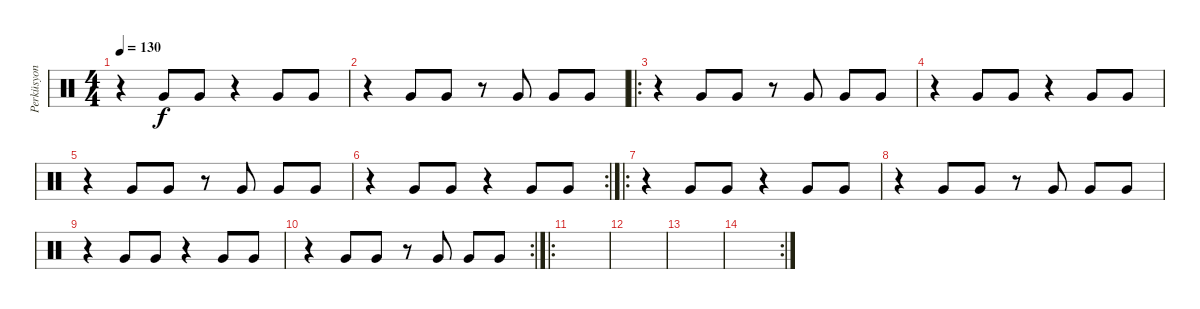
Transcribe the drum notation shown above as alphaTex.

\track ("Perküsyon" "Perküsyon") {instrument percussion}
\staff {score}
\articulation defaults
\ts (4 4)
\tempo 130
\clef neutral
\ks c
r.4{dy f} "Very Low Tom (hit)".8 "Very Low Tom (hit)".8 r.4 "Very Low Tom (hit)".8 "Very Low Tom (hit)".8 |
r.4 "Very Low Tom (hit)".8 "Very Low Tom (hit)".8 r.8 "Very Low Tom (hit)".8 "Very Low Tom (hit)".8 "Very Low Tom (hit)".8 |
\ro
r.4 "Very Low Tom (hit)".8 "Very Low Tom (hit)".8 r.8 "Very Low Tom (hit)".8 "Very Low Tom (hit)".8 "Very Low Tom (hit)".8 |
r.4 "Very Low Tom (hit)".8 "Very Low Tom (hit)".8 r.4 "Very Low Tom (hit)".8 "Very Low Tom (hit)".8 |
r.4 "Very Low Tom (hit)".8 "Very Low Tom (hit)".8 r.8 "Very Low Tom (hit)".8 "Very Low Tom (hit)".8 "Very Low Tom (hit)".8 |
\rc 2
r.4 "Very Low Tom (hit)".8 "Very Low Tom (hit)".8 r.4 "Very Low Tom (hit)".8 "Very Low Tom (hit)".8 |
\ro
r.4 "Very Low Tom (hit)".8 "Very Low Tom (hit)".8 r.4 "Very Low Tom (hit)".8 "Very Low Tom (hit)".8 |
r.4 "Very Low Tom (hit)".8 "Very Low Tom (hit)".8 r.8 "Very Low Tom (hit)".8 "Very Low Tom (hit)".8 "Very Low Tom (hit)".8 |
r.4 "Very Low Tom (hit)".8 "Very Low Tom (hit)".8 r.4 "Very Low Tom (hit)".8 "Very Low Tom (hit)".8 |
\rc 2
r.4 "Very Low Tom (hit)".8 "Very Low Tom (hit)".8 r.8 "Very Low Tom (hit)".8 "Very Low Tom (hit)".8 "Very Low Tom (hit)".8 |
\ro
|
|
|
\rc 2
